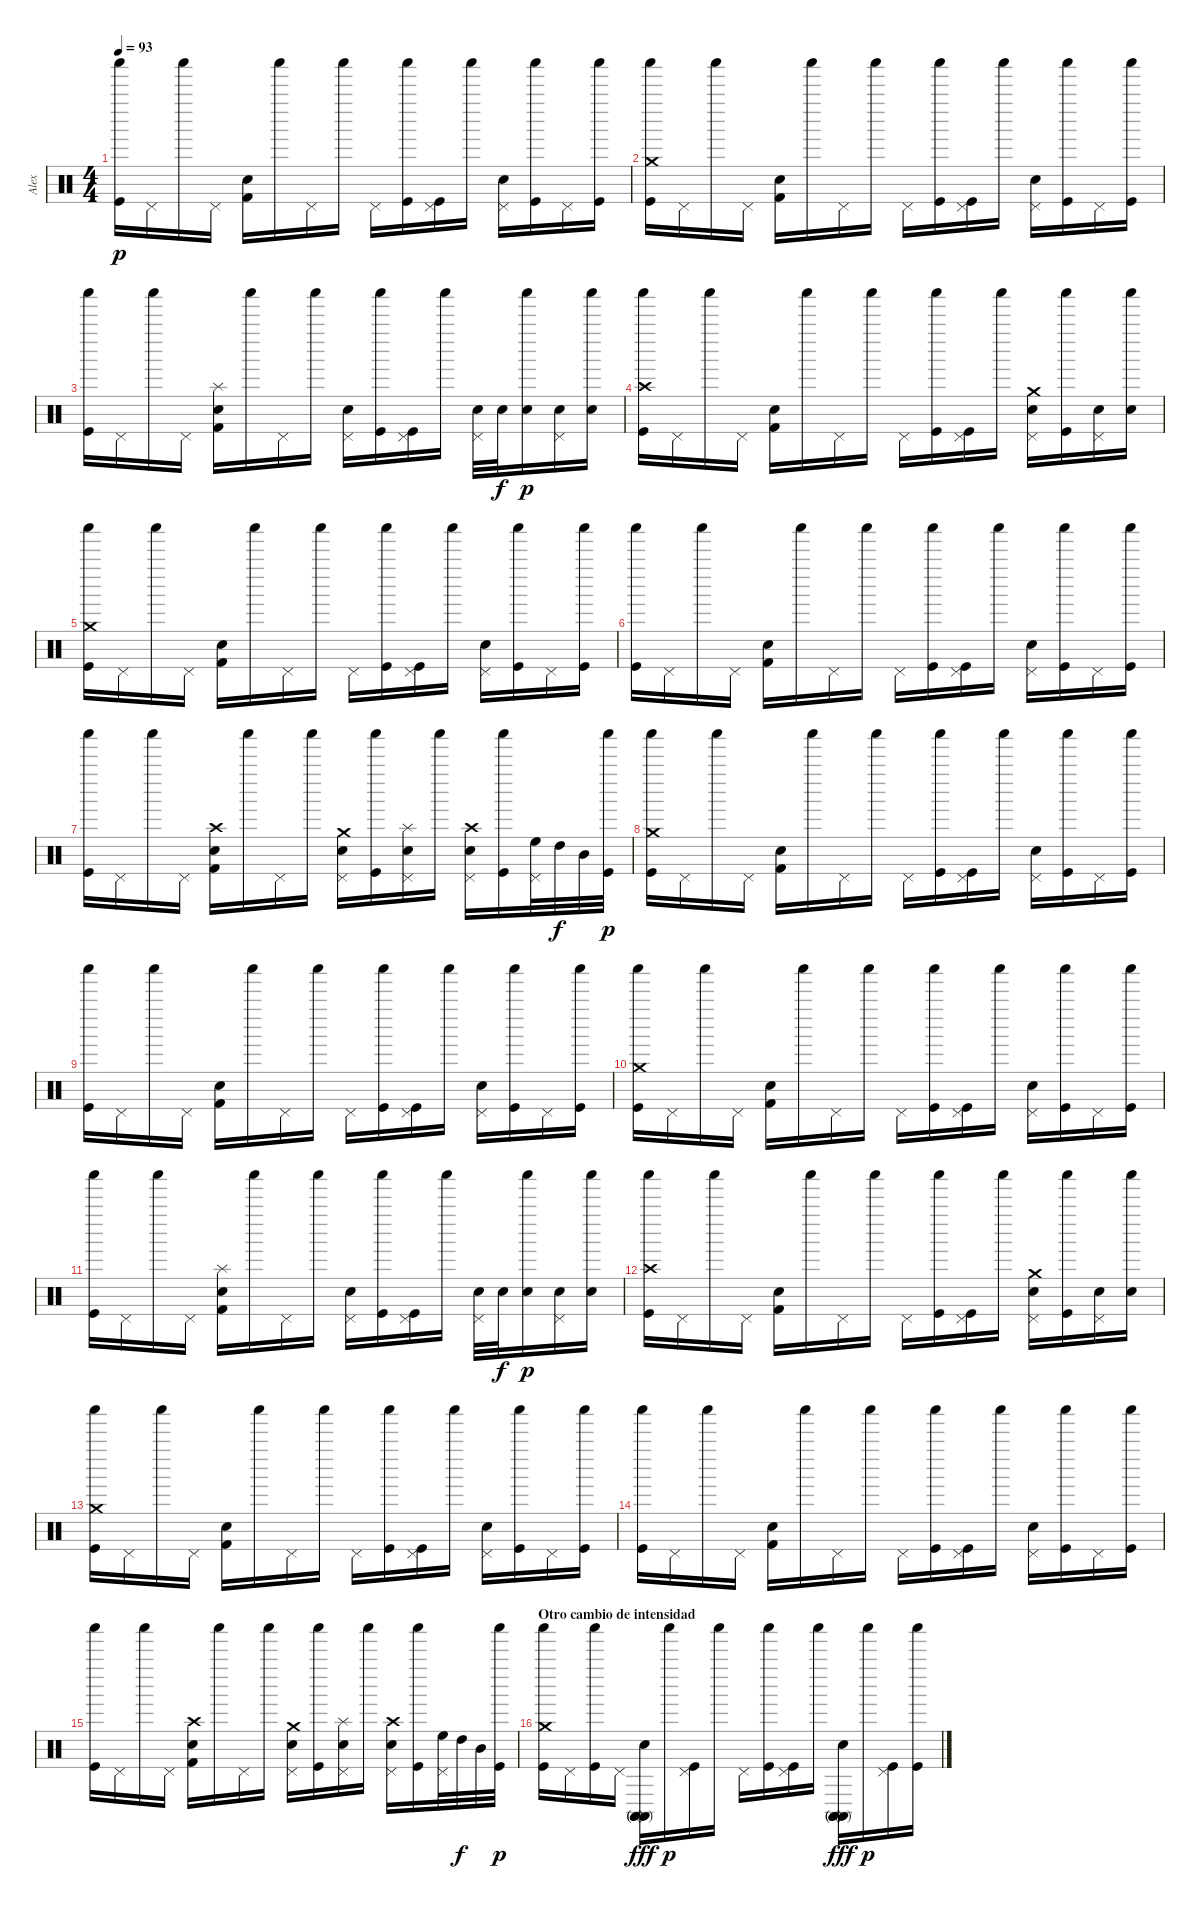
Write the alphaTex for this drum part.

\track ("Alex" "Alex") {instrument percussion}
\staff {score}
\articulation defaults
\ts (4 4)
\tempo 93
\clef neutral
\ks c
("Kick (hit)" "Shaker (hit)").16{dy p} "Pedal Hi-Hat (hit)".16 "Shaker (hit)".16 "Pedal Hi-Hat (hit)".16 ("Electric Snare (hit)" "Kick (hit) 2").16 "Shaker (hit)".16 "Pedal Hi-Hat (hit)".16 "Shaker (hit)".16 "Pedal Hi-Hat (hit)".16 ("Kick (hit)" "Shaker (hit)").16 ("Kick (hit)" "Pedal Hi-Hat (hit)").16 "Shaker (hit)".16 ("Electric Snare (hit)" "Pedal Hi-Hat (hit)").16 ("Kick (hit)" "Shaker (hit)").16 "Pedal Hi-Hat (hit)".16 ("Kick (hit)" "Shaker (hit)").16 |
("Kick (hit)" "Shaker (hit)" "Crash medium (hit)").16 "Pedal Hi-Hat (hit)".16 "Shaker (hit)".16 "Pedal Hi-Hat (hit)".16 ("Electric Snare (hit)" "Kick (hit) 2").16 "Shaker (hit)".16 "Pedal Hi-Hat (hit)".16 "Shaker (hit)".16 "Pedal Hi-Hat (hit)".16 ("Kick (hit)" "Shaker (hit)").16 ("Kick (hit)" "Pedal Hi-Hat (hit)").16 "Shaker (hit)".16 ("Electric Snare (hit)" "Pedal Hi-Hat (hit)").16 ("Kick (hit)" "Shaker (hit)").16 "Pedal Hi-Hat (hit)".16 ("Kick (hit)" "Shaker (hit)").16 |
("Kick (hit)" "Shaker (hit)").16 "Pedal Hi-Hat (hit)".16 "Shaker (hit)".16 "Pedal Hi-Hat (hit)".16 ("Electric Snare (hit)" "Kick (hit) 2" "Splash (hit)").16 "Shaker (hit)".16 "Pedal Hi-Hat (hit)".16 "Shaker (hit)".16 ("Electric Snare (hit)" "Pedal Hi-Hat (hit)").16 ("Kick (hit)" "Shaker (hit)").16 ("Kick (hit)" "Pedal Hi-Hat (hit)").16 "Shaker (hit)".16 ("Electric Snare (hit)" "Pedal Hi-Hat (hit)").32 "Electric Snare (hit)".32{dy f} ("Electric Snare (hit)" "Shaker (hit)").16{dy p} ("Electric Snare (hit)" "Pedal Hi-Hat (hit)").16 ("Electric Snare (hit)" "Shaker (hit)").16 |
("Kick (hit)" "Shaker (hit)" "Crash high (hit)").16 "Pedal Hi-Hat (hit)".16 "Shaker (hit)".16 "Pedal Hi-Hat (hit)".16 ("Electric Snare (hit)" "Kick (hit) 2").16 "Shaker (hit)".16 "Pedal Hi-Hat (hit)".16 "Shaker (hit)".16 "Pedal Hi-Hat (hit)".16 ("Kick (hit)" "Shaker (hit)").16 ("Kick (hit)" "Pedal Hi-Hat (hit)").16 "Shaker (hit)".16 ("Electric Snare (hit)" "Pedal Hi-Hat (hit)" "Crash medium (hit)").16 ("Kick (hit)" "Shaker (hit)").16 ("Electric Snare (hit)" "Pedal Hi-Hat (hit)").16 ("Electric Snare (hit)" "Shaker (hit)").16 |
("Kick (hit)" "Shaker (hit)" "Crash medium (hit)").16 "Pedal Hi-Hat (hit)".16 "Shaker (hit)".16 "Pedal Hi-Hat (hit)".16 ("Electric Snare (hit)" "Kick (hit) 2").16 "Shaker (hit)".16 "Pedal Hi-Hat (hit)".16 "Shaker (hit)".16 "Pedal Hi-Hat (hit)".16 ("Kick (hit)" "Shaker (hit)").16 ("Kick (hit)" "Pedal Hi-Hat (hit)").16 "Shaker (hit)".16 ("Electric Snare (hit)" "Pedal Hi-Hat (hit)").16 ("Kick (hit)" "Shaker (hit)").16 "Pedal Hi-Hat (hit)".16 ("Kick (hit)" "Shaker (hit)").16 |
("Kick (hit)" "Shaker (hit)").16 "Pedal Hi-Hat (hit)".16 "Shaker (hit)".16 "Pedal Hi-Hat (hit)".16 ("Electric Snare (hit)" "Kick (hit) 2").16 "Shaker (hit)".16 "Pedal Hi-Hat (hit)".16 "Shaker (hit)".16 "Pedal Hi-Hat (hit)".16 ("Kick (hit)" "Shaker (hit)").16 ("Kick (hit)" "Pedal Hi-Hat (hit)").16 "Shaker (hit)".16 ("Electric Snare (hit)" "Pedal Hi-Hat (hit)").16 ("Kick (hit)" "Shaker (hit)").16 "Pedal Hi-Hat (hit)".16 ("Kick (hit)" "Shaker (hit)").16 |
("Kick (hit)" "Shaker (hit)").16 "Pedal Hi-Hat (hit)".16 "Shaker (hit)".16 "Pedal Hi-Hat (hit)".16 ("Electric Snare (hit)" "Kick (hit) 2" "Crash high (hit)").16 "Shaker (hit)".16 "Pedal Hi-Hat (hit)".16 "Shaker (hit)".16 ("Electric Snare (hit)" "Pedal Hi-Hat (hit)" "Crash medium (hit)").16 ("Kick (hit)" "Shaker (hit)").16 ("Electric Snare (hit)" "Pedal Hi-Hat (hit)" "Splash (hit)").16 "Shaker (hit)".16 ("Electric Snare (hit)" "Pedal Hi-Hat (hit)" "Crash high (hit)").16 ("Kick (hit)" "Shaker (hit)").16 ("High Floor Tom (hit)" "Pedal Hi-Hat (hit)").32 "High Tom (hit)".32{dy f} "Mid Tom (hit)".32 ("Kick (hit)" "Shaker (hit)").32{dy p} |
("Kick (hit)" "Shaker (hit)" "Crash medium (hit)").16 "Pedal Hi-Hat (hit)".16 "Shaker (hit)".16 "Pedal Hi-Hat (hit)".16 ("Electric Snare (hit)" "Kick (hit) 2").16 "Shaker (hit)".16 "Pedal Hi-Hat (hit)".16 "Shaker (hit)".16 "Pedal Hi-Hat (hit)".16 ("Kick (hit)" "Shaker (hit)").16 ("Kick (hit)" "Pedal Hi-Hat (hit)").16 "Shaker (hit)".16 ("Electric Snare (hit)" "Pedal Hi-Hat (hit)").16 ("Kick (hit)" "Shaker (hit)").16 "Pedal Hi-Hat (hit)".16 ("Kick (hit)" "Shaker (hit)").16 |
("Kick (hit)" "Shaker (hit)").16 "Pedal Hi-Hat (hit)".16 "Shaker (hit)".16 "Pedal Hi-Hat (hit)".16 ("Electric Snare (hit)" "Kick (hit) 2").16 "Shaker (hit)".16 "Pedal Hi-Hat (hit)".16 "Shaker (hit)".16 "Pedal Hi-Hat (hit)".16 ("Kick (hit)" "Shaker (hit)").16 ("Kick (hit)" "Pedal Hi-Hat (hit)").16 "Shaker (hit)".16 ("Electric Snare (hit)" "Pedal Hi-Hat (hit)").16 ("Kick (hit)" "Shaker (hit)").16 "Pedal Hi-Hat (hit)".16 ("Kick (hit)" "Shaker (hit)").16 |
("Kick (hit)" "Shaker (hit)" "Crash medium (hit)").16 "Pedal Hi-Hat (hit)".16 "Shaker (hit)".16 "Pedal Hi-Hat (hit)".16 ("Electric Snare (hit)" "Kick (hit) 2").16 "Shaker (hit)".16 "Pedal Hi-Hat (hit)".16 "Shaker (hit)".16 "Pedal Hi-Hat (hit)".16 ("Kick (hit)" "Shaker (hit)").16 ("Kick (hit)" "Pedal Hi-Hat (hit)").16 "Shaker (hit)".16 ("Electric Snare (hit)" "Pedal Hi-Hat (hit)").16 ("Kick (hit)" "Shaker (hit)").16 "Pedal Hi-Hat (hit)".16 ("Kick (hit)" "Shaker (hit)").16 |
("Kick (hit)" "Shaker (hit)").16 "Pedal Hi-Hat (hit)".16 "Shaker (hit)".16 "Pedal Hi-Hat (hit)".16 ("Electric Snare (hit)" "Kick (hit) 2" "Splash (hit)").16 "Shaker (hit)".16 "Pedal Hi-Hat (hit)".16 "Shaker (hit)".16 ("Electric Snare (hit)" "Pedal Hi-Hat (hit)").16 ("Kick (hit)" "Shaker (hit)").16 ("Kick (hit)" "Pedal Hi-Hat (hit)").16 "Shaker (hit)".16 ("Electric Snare (hit)" "Pedal Hi-Hat (hit)").32 "Electric Snare (hit)".32{dy f} ("Electric Snare (hit)" "Shaker (hit)").16{dy p} ("Electric Snare (hit)" "Pedal Hi-Hat (hit)").16 ("Electric Snare (hit)" "Shaker (hit)").16 |
("Kick (hit)" "Shaker (hit)" "Crash high (hit)").16 "Pedal Hi-Hat (hit)".16 "Shaker (hit)".16 "Pedal Hi-Hat (hit)".16 ("Electric Snare (hit)" "Kick (hit) 2").16 "Shaker (hit)".16 "Pedal Hi-Hat (hit)".16 "Shaker (hit)".16 "Pedal Hi-Hat (hit)".16 ("Kick (hit)" "Shaker (hit)").16 ("Kick (hit)" "Pedal Hi-Hat (hit)").16 "Shaker (hit)".16 ("Electric Snare (hit)" "Pedal Hi-Hat (hit)" "Crash medium (hit)").16 ("Kick (hit)" "Shaker (hit)").16 ("Electric Snare (hit)" "Pedal Hi-Hat (hit)").16 ("Electric Snare (hit)" "Shaker (hit)").16 |
("Kick (hit)" "Shaker (hit)" "Crash medium (hit)").16 "Pedal Hi-Hat (hit)".16 "Shaker (hit)".16 "Pedal Hi-Hat (hit)".16 ("Electric Snare (hit)" "Kick (hit) 2").16 "Shaker (hit)".16 "Pedal Hi-Hat (hit)".16 "Shaker (hit)".16 "Pedal Hi-Hat (hit)".16 ("Kick (hit)" "Shaker (hit)").16 ("Kick (hit)" "Pedal Hi-Hat (hit)").16 "Shaker (hit)".16 ("Electric Snare (hit)" "Pedal Hi-Hat (hit)").16 ("Kick (hit)" "Shaker (hit)").16 "Pedal Hi-Hat (hit)".16 ("Kick (hit)" "Shaker (hit)").16 |
("Kick (hit)" "Shaker (hit)").16 "Pedal Hi-Hat (hit)".16 "Shaker (hit)".16 "Pedal Hi-Hat (hit)".16 ("Electric Snare (hit)" "Kick (hit) 2").16 "Shaker (hit)".16 "Pedal Hi-Hat (hit)".16 "Shaker (hit)".16 "Pedal Hi-Hat (hit)".16 ("Kick (hit)" "Shaker (hit)").16 ("Kick (hit)" "Pedal Hi-Hat (hit)").16 "Shaker (hit)".16 ("Electric Snare (hit)" "Pedal Hi-Hat (hit)").16 ("Kick (hit)" "Shaker (hit)").16 "Pedal Hi-Hat (hit)".16 ("Kick (hit)" "Shaker (hit)").16 |
("Kick (hit)" "Shaker (hit)").16 "Pedal Hi-Hat (hit)".16 "Shaker (hit)".16 "Pedal Hi-Hat (hit)".16 ("Electric Snare (hit)" "Kick (hit) 2" "Crash high (hit)").16 "Shaker (hit)".16 "Pedal Hi-Hat (hit)".16 "Shaker (hit)".16 ("Electric Snare (hit)" "Pedal Hi-Hat (hit)" "Crash medium (hit)").16 ("Kick (hit)" "Shaker (hit)").16 ("Electric Snare (hit)" "Pedal Hi-Hat (hit)" "Splash (hit)").16 "Shaker (hit)".16 ("Electric Snare (hit)" "Pedal Hi-Hat (hit)" "Crash high (hit)").16 ("Kick (hit)" "Shaker (hit)").16 ("High Floor Tom (hit)" "Pedal Hi-Hat (hit)").32 "High Tom (hit)".32{dy f} "Mid Tom (hit)".32 ("Kick (hit)" "Shaker (hit)").32{dy p} |
\section ("" "Otro cambio de intensidad")
("Kick (hit)" "Shaker (hit)" "Crash medium (hit)").16{volume 13} "Pedal Hi-Hat (hit)".16 ("Kick (hit)" "Shaker (hit)").16 "Pedal Hi-Hat (hit)".16 ("Electric Snare (hit)" "Conga high (mute)" "Conga high (mute)" "Conga high (mute)").16{dy fff} "Shaker (hit)".16{dy p} ("Kick (hit)" "Pedal Hi-Hat (hit)").16 "Shaker (hit)".16 "Pedal Hi-Hat (hit)".16 ("Kick (hit)" "Shaker (hit)").16 ("Kick (hit)" "Pedal Hi-Hat (hit)").16 "Shaker (hit)".16 ("Electric Snare (hit)" "Conga high (mute)" "Conga high (mute)" "Conga high (mute)").16{dy fff} "Shaker (hit)".16{dy p} ("Kick (hit)" "Pedal Hi-Hat (hit)").16 ("Kick (hit)" "Shaker (hit)").16
